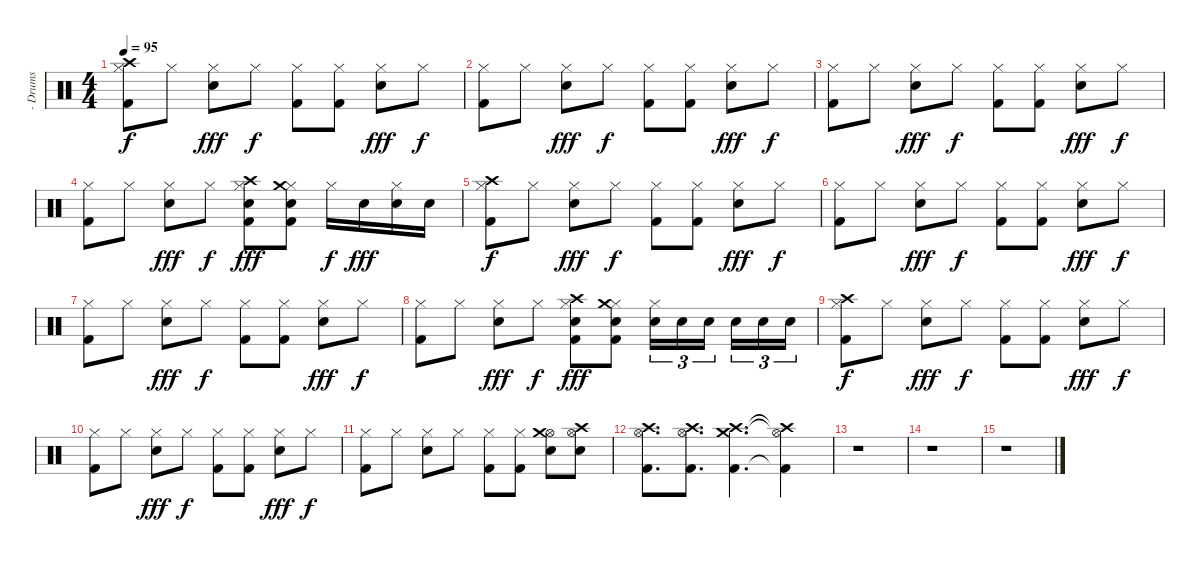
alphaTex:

\track ("- Drums" "- Drums") {instrument percussion}
\staff {score}
\articulation defaults
\ts (4 4)
\tempo 95
\clef neutral
\ks c
("Hi-Hat (closed)" "Crash high (hit)" "Kick (hit) 2").8{dy f} "Hi-Hat (closed)".8 ("Hi-Hat (closed)" "Electric Snare (hit)").8{dy fff} "Hi-Hat (closed)".8{dy f} ("Hi-Hat (closed)" "Kick (hit) 2").8 ("Hi-Hat (closed)" "Kick (hit) 2").8 ("Hi-Hat (closed)" "Electric Snare (hit)").8{dy fff} "Hi-Hat (closed)".8{dy f} |
("Hi-Hat (closed)" "Kick (hit) 2").8 "Hi-Hat (closed)".8 ("Hi-Hat (closed)" "Electric Snare (hit)").8{dy fff} "Hi-Hat (closed)".8{dy f} ("Hi-Hat (closed)" "Kick (hit) 2").8 ("Hi-Hat (closed)" "Kick (hit) 2").8 ("Hi-Hat (closed)" "Electric Snare (hit)").8{dy fff} "Hi-Hat (closed)".8{dy f} |
("Hi-Hat (closed)" "Kick (hit) 2").8 "Hi-Hat (closed)".8 ("Hi-Hat (closed)" "Electric Snare (hit)").8{dy fff} "Hi-Hat (closed)".8{dy f} ("Hi-Hat (closed)" "Kick (hit) 2").8 ("Hi-Hat (closed)" "Kick (hit) 2").8 ("Hi-Hat (closed)" "Electric Snare (hit)").8{dy fff} "Hi-Hat (closed)".8{dy f} |
("Hi-Hat (closed)" "Kick (hit) 2").8 "Hi-Hat (closed)".8 ("Hi-Hat (closed)" "Electric Snare (hit)").8{dy fff} "Hi-Hat (closed)".8{dy f} ("Hi-Hat (closed)" "Crash high (hit)" "Electric Snare (hit)" "Kick (hit) 2").8{dy fff} ("Hi-Hat (closed)" "Crash medium (hit)" "Electric Snare (hit)" "Kick (hit) 2").8 "Hi-Hat (closed)".16{dy f} "Electric Snare (hit)".16{dy fff} ("Hi-Hat (closed)" "Electric Snare (hit)").16 "Electric Snare (hit)".16 |
("Hi-Hat (closed)" "Crash high (hit)" "Kick (hit) 2").8{dy f} "Hi-Hat (closed)".8 ("Hi-Hat (closed)" "Electric Snare (hit)").8{dy fff} "Hi-Hat (closed)".8{dy f} ("Hi-Hat (closed)" "Kick (hit) 2").8 ("Hi-Hat (closed)" "Kick (hit) 2").8 ("Hi-Hat (closed)" "Electric Snare (hit)").8{dy fff} "Hi-Hat (closed)".8{dy f} |
("Hi-Hat (closed)" "Kick (hit) 2").8 "Hi-Hat (closed)".8 ("Hi-Hat (closed)" "Electric Snare (hit)").8{dy fff} "Hi-Hat (closed)".8{dy f} ("Hi-Hat (closed)" "Kick (hit) 2").8 ("Hi-Hat (closed)" "Kick (hit) 2").8 ("Hi-Hat (closed)" "Electric Snare (hit)").8{dy fff} "Hi-Hat (closed)".8{dy f} |
("Hi-Hat (closed)" "Kick (hit) 2").8 "Hi-Hat (closed)".8 ("Hi-Hat (closed)" "Electric Snare (hit)").8{dy fff} "Hi-Hat (closed)".8{dy f} ("Hi-Hat (closed)" "Kick (hit) 2").8 ("Hi-Hat (closed)" "Kick (hit) 2").8 ("Hi-Hat (closed)" "Electric Snare (hit)").8{dy fff} "Hi-Hat (closed)".8{dy f} |
("Hi-Hat (closed)" "Kick (hit) 2").8 "Hi-Hat (closed)".8 ("Hi-Hat (closed)" "Electric Snare (hit)").8{dy fff} "Hi-Hat (closed)".8{dy f} ("Hi-Hat (closed)" "Crash high (hit)" "Electric Snare (hit)" "Kick (hit) 2").8{dy fff} ("Hi-Hat (closed)" "Crash medium (hit)" "Electric Snare (hit)" "Kick (hit) 2").8 ("Hi-Hat (closed)" "Electric Snare (hit)").16{tu (3 2)} "Electric Snare (hit)".16{tu (3 2)} "Electric Snare (hit)".16{tu (3 2) beam splitsecondary} "Electric Snare (hit)".16{tu (3 2)} "Electric Snare (hit)".16{tu (3 2)} "Electric Snare (hit)".16{tu (3 2)} |
("Hi-Hat (closed)" "Crash high (hit)" "Kick (hit) 2").8{dy f} "Hi-Hat (closed)".8 ("Hi-Hat (closed)" "Electric Snare (hit)").8{dy fff} "Hi-Hat (closed)".8{dy f} ("Hi-Hat (closed)" "Kick (hit) 2").8 ("Hi-Hat (closed)" "Kick (hit) 2").8 ("Hi-Hat (closed)" "Electric Snare (hit)").8{dy fff} "Hi-Hat (closed)".8{dy f} |
("Hi-Hat (closed)" "Kick (hit) 2").8 "Hi-Hat (closed)".8 ("Hi-Hat (closed)" "Electric Snare (hit)").8{dy fff} "Hi-Hat (closed)".8{dy f} ("Hi-Hat (closed)" "Kick (hit) 2").8 ("Hi-Hat (closed)" "Kick (hit) 2").8 ("Hi-Hat (closed)" "Electric Snare (hit)").8{dy fff} "Hi-Hat (closed)".8{dy f} |
("Hi-Hat (closed)" "Kick (hit) 2").8 "Hi-Hat (closed)".8 ("Hi-Hat (closed)" "Electric Snare (hit)").8 "Hi-Hat (closed)".8 ("Hi-Hat (closed)" "Kick (hit) 2").8 ("Hi-Hat (closed)" "Kick (hit) 2").8 ("Hi-Hat (open)" "Crash medium (hit)" "Snare (hit) 2").8 ("Hi-Hat (open)" "Crash high (hit)" "Electric Snare (hit)").8 |
("Hi-Hat (open)" "Crash high (hit)" "Kick (hit) 2").8{d} ("Hi-Hat (open)" "Crash high (hit)" "Kick (hit) 2").8{d} ("Crash medium (hit)" "Crash high (hit)" "Kick (hit) 2").4{d} ("Hi-Hat (open)"{t} "Crash high (hit)"{t} "Kick (hit) 2"{t}).4 |
r.1 |
r.1 |
r.1
